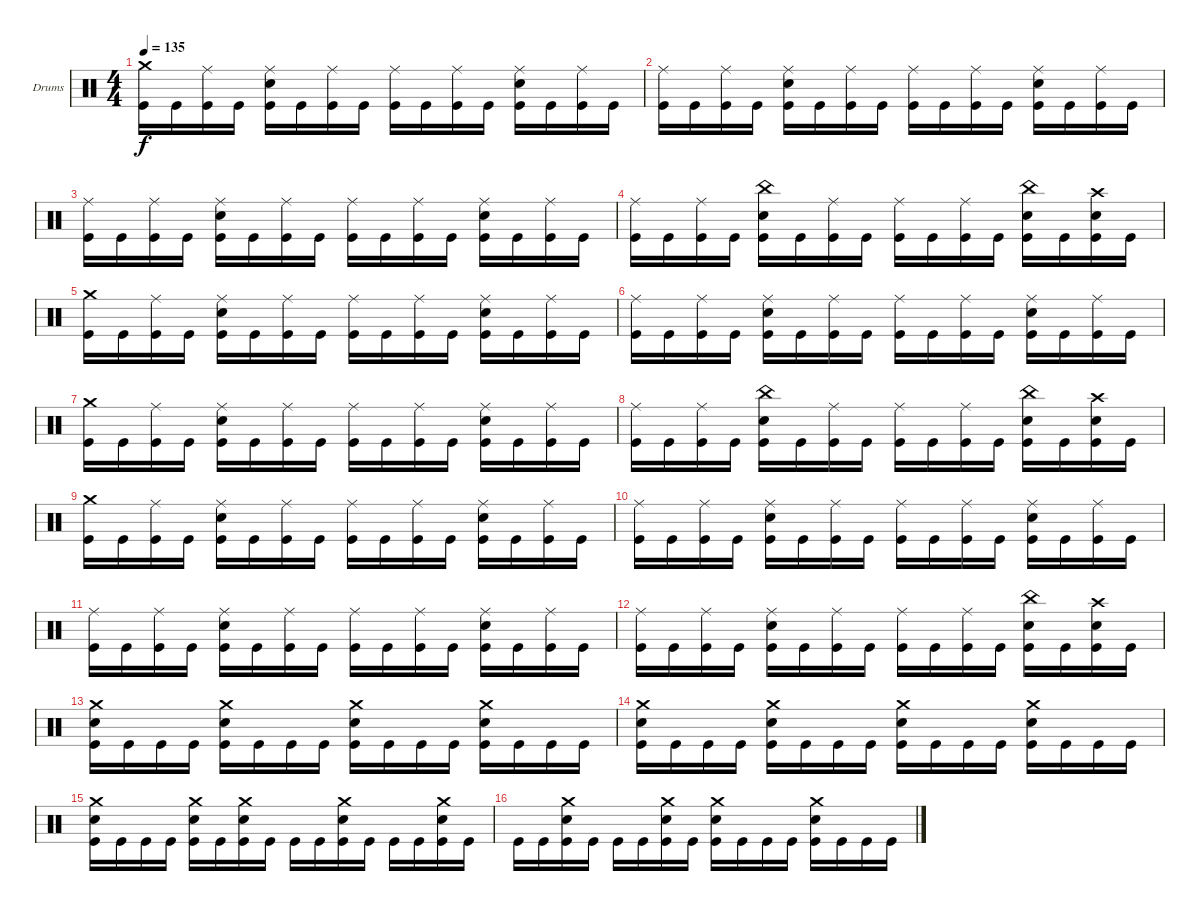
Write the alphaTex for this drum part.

\defaultSystemsLayout 4
\bracketExtendMode groupsimilarinstruments
\firstSystemTrackNameOrientation horizontal
\otherSystemsTrackNameOrientation horizontal
\track ("Drumkit" "Drums") {instrument percussion}
\staff {score}
\articulation defaults
\ts (4 4)
\tempo 135
\clef neutral
\scale
0.5
\ks c
("Crash medium (hit)" "Kick (hit)").16{dy f} "Kick (hit)".16 ("Ride (middle)" "Kick (hit)").16 "Kick (hit)".16 ("Ride (middle)" "Snare (hit) 2" "Kick (hit)").16 "Kick (hit)".16 ("Ride (middle)" "Kick (hit)").16 "Kick (hit)".16 ("Ride (middle)" "Kick (hit)").16 "Kick (hit)".16 ("Ride (middle)" "Kick (hit)").16 "Kick (hit)".16 ("Ride (middle)" "Snare (hit) 2" "Kick (hit)").16 "Kick (hit)".16 ("Ride (middle)" "Kick (hit)").16 "Kick (hit)".16 |
\scale
0.5 ("Ride (middle)" "Kick (hit)").16 "Kick (hit)".16 ("Ride (middle)" "Kick (hit)").16 "Kick (hit)".16 ("Ride (middle)" "Snare (hit) 2" "Kick (hit)").16 "Kick (hit)".16 ("Ride (middle)" "Kick (hit)").16 "Kick (hit)".16 ("Ride (middle)" "Kick (hit)").16 "Kick (hit)".16 ("Ride (middle)" "Kick (hit)").16 "Kick (hit)".16 ("Ride (middle)" "Snare (hit) 2" "Kick (hit)").16 "Kick (hit)".16 ("Ride (middle)" "Kick (hit)").16 "Kick (hit)".16 |
\scale
0.5 ("Ride (middle)" "Kick (hit)").16 "Kick (hit)".16 ("Ride (middle)" "Kick (hit)").16 "Kick (hit)".16 ("Ride (middle)" "Snare (hit) 2" "Kick (hit)").16 "Kick (hit)".16 ("Ride (middle)" "Kick (hit)").16 "Kick (hit)".16 ("Ride (middle)" "Kick (hit)").16 "Kick (hit)".16 ("Ride (middle)" "Kick (hit)").16 "Kick (hit)".16 ("Ride (middle)" "Snare (hit) 2" "Kick (hit)").16 "Kick (hit)".16 ("Ride (middle)" "Kick (hit)").16 "Kick (hit)".16 |
\scale
0.5 ("Ride (middle)" "Kick (hit)").16 "Kick (hit)".16 ("Ride (middle)" "Kick (hit)").16 "Kick (hit)".16 ("China (hit)" "Snare (hit) 2" "Kick (hit)").16 "Kick (hit)".16 ("Ride (middle)" "Kick (hit)").16 "Kick (hit)".16 ("Ride (middle)" "Kick (hit)").16 "Kick (hit)".16 ("Ride (middle)" "Kick (hit)").16 "Kick (hit)".16 ("China (hit)" "Snare (hit) 2" "Kick (hit)").16 "Kick (hit)".16 ("Crash high (hit)" "Snare (hit) 2" "Kick (hit)").16 "Kick (hit)".16 |
\scale
0.5 ("Crash medium (hit)" "Kick (hit)").16 "Kick (hit)".16 ("Ride (middle)" "Kick (hit)").16 "Kick (hit)".16 ("Ride (middle)" "Snare (hit) 2" "Kick (hit)").16 "Kick (hit)".16 ("Ride (middle)" "Kick (hit)").16 "Kick (hit)".16 ("Ride (middle)" "Kick (hit)").16 "Kick (hit)".16 ("Ride (middle)" "Kick (hit)").16 "Kick (hit)".16 ("Ride (middle)" "Snare (hit) 2" "Kick (hit)").16 "Kick (hit)".16 ("Ride (middle)" "Kick (hit)").16 "Kick (hit)".16 |
\scale
0.5 ("Ride (middle)" "Kick (hit)").16 "Kick (hit)".16 ("Ride (middle)" "Kick (hit)").16 "Kick (hit)".16 ("Ride (middle)" "Snare (hit) 2" "Kick (hit)").16 "Kick (hit)".16 ("Ride (middle)" "Kick (hit)").16 "Kick (hit)".16 ("Ride (middle)" "Kick (hit)").16 "Kick (hit)".16 ("Ride (middle)" "Kick (hit)").16 "Kick (hit)".16 ("Ride (middle)" "Snare (hit) 2" "Kick (hit)").16 "Kick (hit)".16 ("Ride (middle)" "Kick (hit)").16 "Kick (hit)".16 |
\scale
0.5 ("Crash medium (hit)" "Kick (hit)").16 "Kick (hit)".16 ("Ride (middle)" "Kick (hit)").16 "Kick (hit)".16 ("Ride (middle)" "Snare (hit) 2" "Kick (hit)").16 "Kick (hit)".16 ("Ride (middle)" "Kick (hit)").16 "Kick (hit)".16 ("Ride (middle)" "Kick (hit)").16 "Kick (hit)".16 ("Ride (middle)" "Kick (hit)").16 "Kick (hit)".16 ("Ride (middle)" "Snare (hit) 2" "Kick (hit)").16 "Kick (hit)".16 ("Ride (middle)" "Kick (hit)").16 "Kick (hit)".16 |
\scale
0.5 ("Ride (middle)" "Kick (hit)").16 "Kick (hit)".16 ("Ride (middle)" "Kick (hit)").16 "Kick (hit)".16 ("China (hit)" "Snare (hit) 2" "Kick (hit)").16 "Kick (hit)".16 ("Ride (middle)" "Kick (hit)").16 "Kick (hit)".16 ("Ride (middle)" "Kick (hit)").16 "Kick (hit)".16 ("Ride (middle)" "Kick (hit)").16 "Kick (hit)".16 ("China (hit)" "Snare (hit) 2" "Kick (hit)").16 "Kick (hit)".16 ("Crash high (hit)" "Snare (hit) 2" "Kick (hit)").16 "Kick (hit)".16 |
\scale
0.5 ("Crash medium (hit)" "Kick (hit)").16 "Kick (hit)".16 ("Ride (middle)" "Kick (hit)").16 "Kick (hit)".16 ("Ride (middle)" "Snare (hit) 2" "Kick (hit)").16 "Kick (hit)".16 ("Ride (middle)" "Kick (hit)").16 "Kick (hit)".16 ("Ride (middle)" "Kick (hit)").16 "Kick (hit)".16 ("Ride (middle)" "Kick (hit)").16 "Kick (hit)".16 ("Ride (middle)" "Snare (hit) 2" "Kick (hit)").16 "Kick (hit)".16 ("Ride (middle)" "Kick (hit)").16 "Kick (hit)".16 |
\scale
0.5 ("Ride (middle)" "Kick (hit)").16 "Kick (hit)".16 ("Ride (middle)" "Kick (hit)").16 "Kick (hit)".16 ("Ride (middle)" "Snare (hit) 2" "Kick (hit)").16 "Kick (hit)".16 ("Ride (middle)" "Kick (hit)").16 "Kick (hit)".16 ("Ride (middle)" "Kick (hit)").16 "Kick (hit)".16 ("Ride (middle)" "Kick (hit)").16 "Kick (hit)".16 ("Ride (middle)" "Snare (hit) 2" "Kick (hit)").16 "Kick (hit)".16 ("Ride (middle)" "Kick (hit)").16 "Kick (hit)".16 |
\scale
0.5 ("Ride (middle)" "Kick (hit)").16 "Kick (hit)".16 ("Ride (middle)" "Kick (hit)").16 "Kick (hit)".16 ("Ride (middle)" "Snare (hit) 2" "Kick (hit)").16 "Kick (hit)".16 ("Ride (middle)" "Kick (hit)").16 "Kick (hit)".16 ("Ride (middle)" "Kick (hit)").16 "Kick (hit)".16 ("Ride (middle)" "Kick (hit)").16 "Kick (hit)".16 ("Ride (middle)" "Snare (hit) 2" "Kick (hit)").16 "Kick (hit)".16 ("Ride (middle)" "Kick (hit)").16 "Kick (hit)".16 |
\scale
0.5 ("Ride (middle)" "Kick (hit)").16 "Kick (hit)".16 ("Ride (middle)" "Kick (hit)").16 "Kick (hit)".16 ("Ride (middle)" "Snare (hit) 2" "Kick (hit)").16 "Kick (hit)".16 ("Ride (middle)" "Kick (hit)").16 "Kick (hit)".16 ("Ride (middle)" "Kick (hit)").16 "Kick (hit)".16 ("Ride (middle)" "Kick (hit)").16 "Kick (hit)".16 ("China (hit)" "Snare (hit) 2" "Kick (hit)").16 "Kick (hit)".16 ("Crash high (hit)" "Snare (hit) 2" "Kick (hit)").16 "Kick (hit)".16 |
\scale
0.5 ("Crash medium (hit)" "Snare (hit) 2" "Kick (hit)").16 "Kick (hit)".16 "Kick (hit)".16 "Kick (hit)".16 ("Crash medium (hit)" "Snare (hit) 2" "Kick (hit)").16 "Kick (hit)".16 "Kick (hit)".16 "Kick (hit)".16 ("Crash medium (hit)" "Snare (hit) 2" "Kick (hit)").16 "Kick (hit)".16 "Kick (hit)".16 "Kick (hit)".16 ("Crash medium (hit)" "Snare (hit) 2" "Kick (hit)").16 "Kick (hit)".16 "Kick (hit)".16 "Kick (hit)".16 |
\scale
0.5 ("Crash medium (hit)" "Snare (hit) 2" "Kick (hit)").16 "Kick (hit)".16 "Kick (hit)".16 "Kick (hit)".16 ("Crash medium (hit)" "Snare (hit) 2" "Kick (hit)").16 "Kick (hit)".16 "Kick (hit)".16 "Kick (hit)".16 ("Crash medium (hit)" "Snare (hit) 2" "Kick (hit)").16 "Kick (hit)".16 "Kick (hit)".16 "Kick (hit)".16 ("Crash medium (hit)" "Snare (hit) 2" "Kick (hit)").16 "Kick (hit)".16 "Kick (hit)".16 "Kick (hit)".16 |
\scale
0.5 ("Crash medium (hit)" "Snare (hit) 2" "Kick (hit)").16 "Kick (hit)".16 "Kick (hit)".16 "Kick (hit)".16 ("Crash medium (hit)" "Snare (hit) 2" "Kick (hit)").16 "Kick (hit)".16 ("Crash medium (hit)" "Snare (hit) 2" "Kick (hit)").16 "Kick (hit)".16 "Kick (hit)".16 "Kick (hit)".16 ("Crash medium (hit)" "Snare (hit) 2" "Kick (hit)").16 "Kick (hit)".16 "Kick (hit)".16 "Kick (hit)".16 ("Crash medium (hit)" "Snare (hit) 2" "Kick (hit)").16 "Kick (hit)".16 |
\scale
0.5 "Kick (hit)".16 "Kick (hit)".16 ("Crash medium (hit)" "Snare (hit) 2" "Kick (hit)").16 "Kick (hit)".16 "Kick (hit)".16 "Kick (hit)".16 ("Crash medium (hit)" "Snare (hit) 2" "Kick (hit)").16 "Kick (hit)".16 ("Crash medium (hit)" "Snare (hit) 2" "Kick (hit)").16 "Kick (hit)".16 "Kick (hit)".16 "Kick (hit)".16 ("Crash medium (hit)" "Snare (hit) 2" "Kick (hit)").16 "Kick (hit)".16 "Kick (hit)".16 "Kick (hit)".16
